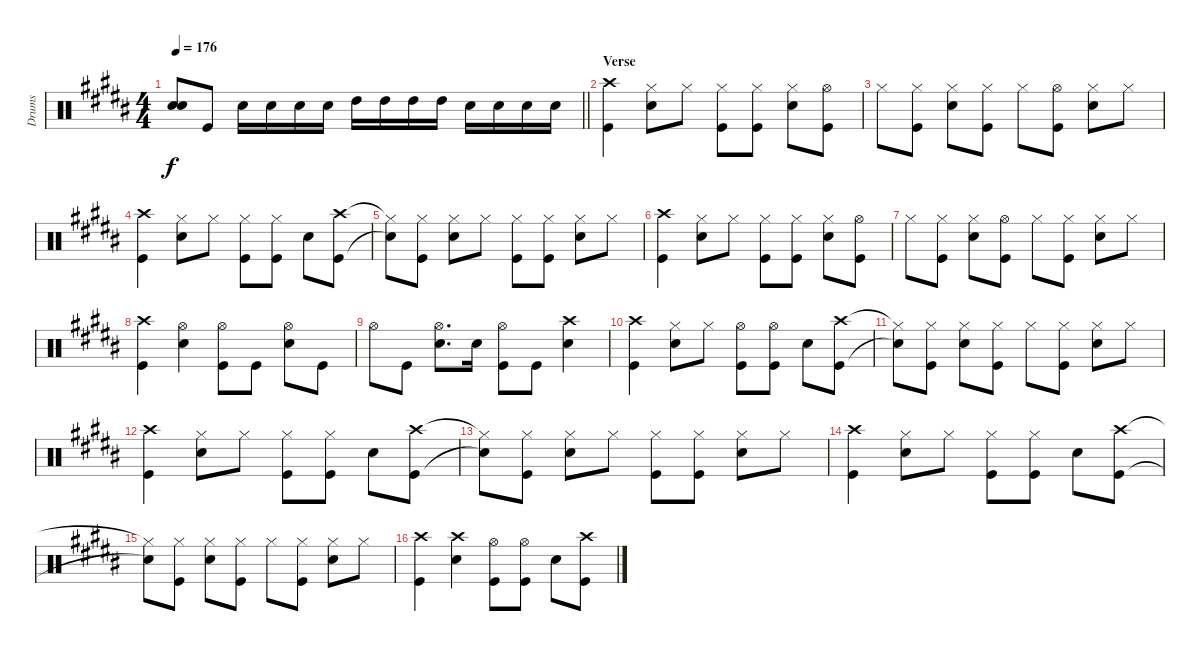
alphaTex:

\track ("Drums" "Drums") {instrument percussion}
\staff {score}
\articulation defaults
\ts (4 4)
\tempo 176
\clef neutral
\barLineRight lightlight
\ks b
("Snare (hit)"{t} "Snare (hit)"{t}).8{dy f} "Kick (hit)".8 "Snare (hit) 2".16 "Snare (hit) 2".16 "Snare (hit) 2".16 "Snare (hit) 2".16 "High Tom (hit)".16 "High Tom (hit)".16 "High Tom (hit)".16 "High Tom (hit)".16 "Snare (hit) 2".16 "Snare (hit) 2".16 "Snare (hit) 2".16 "Snare (hit) 2".16 |
\section ("" "Verse")
("Kick (hit)" "Crash high (hit)").4 ("Snare (hit) 2" "Hi-Hat (closed)").8 "Hi-Hat (closed)".8 ("Hi-Hat (closed)" "Kick (hit)").8 ("Hi-Hat (closed)" "Kick (hit)").8 ("Hi-Hat (closed)" "Snare (hit) 2").8 ("Hi-Hat (open)" "Kick (hit)").8 |
"Hi-Hat (closed)".8 ("Hi-Hat (closed)" "Kick (hit)").8 ("Hi-Hat (closed)" "Snare (hit) 2").8 ("Hi-Hat (closed)" "Kick (hit)").8 "Hi-Hat (closed)".8 ("Hi-Hat (open)" "Kick (hit)").8 ("Hi-Hat (closed)" "Snare (hit) 2").8 "Hi-Hat (closed)".8 |
("Kick (hit)" "Crash high (hit)").4 ("Snare (hit) 2" "Hi-Hat (closed)").8 "Hi-Hat (closed)".8 ("Hi-Hat (closed)" "Kick (hit)").8 ("Hi-Hat (closed)" "Kick (hit)").8 "Snare (hit) 2".8 ("Crash high (hit)" "Kick (hit)").8 |
("Hi-Hat (closed)"{t} "Snare (hit)"{t}).8 ("Kick (hit)" "Hi-Hat (closed)").8 ("Snare (hit) 2" "Hi-Hat (closed)").8 "Hi-Hat (closed)".8 ("Hi-Hat (closed)" "Kick (hit)").8 ("Hi-Hat (closed)" "Kick (hit)").8 ("Hi-Hat (closed)" "Snare (hit) 2").8 "Hi-Hat (closed)".8 |
("Kick (hit)" "Crash high (hit)").4 ("Snare (hit) 2" "Hi-Hat (closed)").8 "Hi-Hat (closed)".8 ("Hi-Hat (closed)" "Kick (hit)").8 ("Hi-Hat (closed)" "Kick (hit)").8 ("Hi-Hat (closed)" "Snare (hit) 2").8 ("Hi-Hat (open)" "Kick (hit)").8 |
"Hi-Hat (closed)".8 ("Hi-Hat (closed)" "Kick (hit)").8 ("Hi-Hat (closed)" "Snare (hit) 2").8 ("Hi-Hat (open)" "Kick (hit)").8 "Hi-Hat (closed)".8 ("Hi-Hat (closed)" "Kick (hit)").8 ("Hi-Hat (closed)" "Snare (hit) 2").8 "Hi-Hat (closed)".8 |
("Kick (hit)" "Crash high (hit)").4 ("Snare (hit) 2" "Hi-Hat (open)").4 ("Kick (hit)" "Hi-Hat (open)").8 "Kick (hit)".8 ("Snare (hit) 2" "Hi-Hat (open)").8 "Kick (hit)".8 |
"Hi-Hat (open)".8 "Kick (hit)".8 ("Hi-Hat (open)" "Snare (hit) 2").8{d} "Snare (hit) 2".16 ("Hi-Hat (open)" "Kick (hit)").8 "Kick (hit)".8 ("Crash high (hit)" "Snare (hit) 2").4 |
("Kick (hit)" "Crash high (hit)").4 ("Snare (hit) 2" "Hi-Hat (closed)").8 "Hi-Hat (closed)".8 ("Hi-Hat (open)" "Kick (hit)").8 ("Hi-Hat (open)" "Kick (hit)").8 "Snare (hit) 2".8 ("Crash high (hit)" "Kick (hit)").8 |
("Hi-Hat (closed)"{t} "Snare (hit)"{t}).8 ("Hi-Hat (closed)" "Kick (hit)").8 ("Hi-Hat (closed)" "Snare (hit) 2").8 ("Hi-Hat (closed)" "Kick (hit)").8 "Hi-Hat (closed)".8 ("Hi-Hat (closed)" "Kick (hit)").8 ("Hi-Hat (closed)" "Snare (hit) 2").8 "Hi-Hat (closed)".8 |
("Kick (hit)" "Crash high (hit)").4 ("Snare (hit) 2" "Hi-Hat (closed)").8 "Hi-Hat (closed)".8 ("Hi-Hat (closed)" "Kick (hit)").8 ("Hi-Hat (closed)" "Kick (hit)").8 "Snare (hit) 2".8 ("Crash high (hit)" "Kick (hit)").8 |
("Hi-Hat (closed)"{t} "Snare (hit)"{t}).8 ("Kick (hit)" "Hi-Hat (closed)").8 ("Snare (hit) 2" "Hi-Hat (closed)").8 "Hi-Hat (closed)".8 ("Hi-Hat (closed)" "Kick (hit)").8 ("Hi-Hat (closed)" "Kick (hit)").8 ("Hi-Hat (closed)" "Snare (hit) 2").8 "Hi-Hat (closed)".8 |
("Kick (hit)" "Crash high (hit)").4 ("Snare (hit) 2" "Hi-Hat (closed)").8 "Hi-Hat (closed)".8 ("Hi-Hat (closed)" "Kick (hit)").8 ("Hi-Hat (closed)" "Kick (hit)").8 "Snare (hit) 2".8 ("Crash high (hit)" "Kick (hit)").8 |
("Hi-Hat (closed)"{t} "Snare (hit)"{t}).8 ("Hi-Hat (closed)" "Kick (hit)").8 ("Hi-Hat (closed)" "Snare (hit) 2").8 ("Hi-Hat (closed)" "Kick (hit)").8 "Hi-Hat (closed)".8 ("Hi-Hat (closed)" "Kick (hit)").8 ("Hi-Hat (closed)" "Snare (hit) 2").8 "Hi-Hat (closed)".8 |
("Kick (hit)" "Crash high (hit)").4 ("Snare (hit) 2" "Crash high (hit)").4 ("Hi-Hat (open)" "Kick (hit)").8 ("Hi-Hat (open)" "Kick (hit)").8 "Snare (hit) 2".8 ("Kick (hit)" "Crash high (hit)").8
